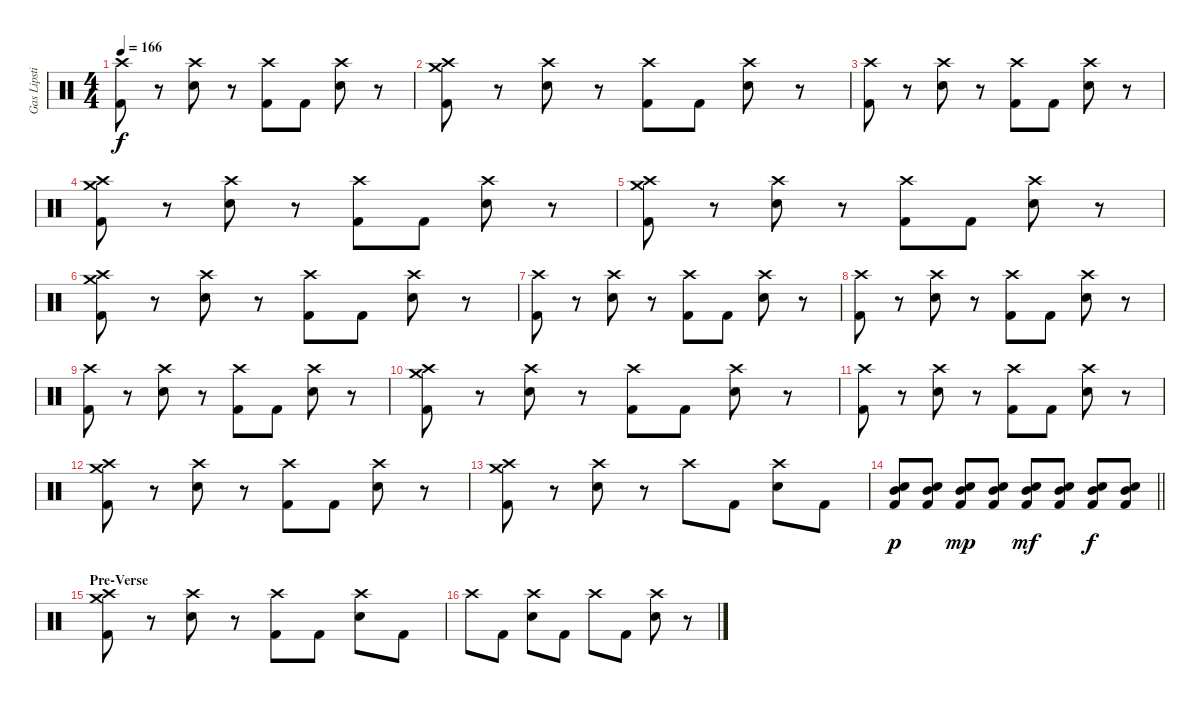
\track ("Gas Lipstick (Drums)" "Gas Lipsti") {instrument percussion}
\staff {score}
\articulation defaults
\ts (4 4)
\tempo 166
\clef neutral
\ks c
("Crash high (hit)" "Kick (hit) 2").8{dy f} r.8 ("Crash high (hit)" "Snare (hit) 2").8 r.8 ("Crash high (hit)" "Kick (hit) 2").8 "Kick (hit) 2".8 ("Crash high (hit)" "Snare (hit) 2").8 r.8 |
("Crash medium (hit)" "Crash high (hit)" "Kick (hit) 2").8 r.8 ("Crash high (hit)" "Snare (hit) 2").8 r.8 ("Crash high (hit)" "Kick (hit) 2").8 "Kick (hit) 2".8 ("Crash high (hit)" "Snare (hit) 2").8 r.8 |
("Crash high (hit)" "Kick (hit) 2").8 r.8 ("Crash high (hit)" "Snare (hit) 2").8 r.8 ("Crash high (hit)" "Kick (hit) 2").8 "Kick (hit) 2".8 ("Crash high (hit)" "Snare (hit) 2").8 r.8 |
("Crash medium (hit)" "Crash high (hit)" "Kick (hit) 2").8 r.8 ("Crash high (hit)" "Snare (hit) 2").8 r.8 ("Crash high (hit)" "Kick (hit) 2").8 "Kick (hit) 2".8 ("Crash high (hit)" "Snare (hit) 2").8 r.8 |
("Crash medium (hit)" "Crash high (hit)" "Kick (hit) 2").8 r.8 ("Crash high (hit)" "Snare (hit) 2").8 r.8 ("Crash high (hit)" "Kick (hit) 2").8 "Kick (hit) 2".8 ("Crash high (hit)" "Snare (hit) 2").8 r.8 |
("Crash medium (hit)" "Crash high (hit)" "Kick (hit) 2").8 r.8 ("Crash high (hit)" "Snare (hit) 2").8 r.8 ("Crash high (hit)" "Kick (hit) 2").8 "Kick (hit) 2".8 ("Crash high (hit)" "Snare (hit) 2").8 r.8 |
("Crash high (hit)" "Kick (hit) 2").8 r.8 ("Crash high (hit)" "Snare (hit) 2").8 r.8 ("Crash high (hit)" "Kick (hit) 2").8 "Kick (hit) 2".8 ("Crash high (hit)" "Snare (hit) 2").8 r.8 |
("Crash high (hit)" "Kick (hit) 2").8 r.8 ("Crash high (hit)" "Snare (hit) 2").8 r.8 ("Crash high (hit)" "Kick (hit) 2").8 "Kick (hit) 2".8 ("Crash high (hit)" "Snare (hit) 2").8 r.8 |
("Crash high (hit)" "Kick (hit) 2").8 r.8 ("Crash high (hit)" "Snare (hit) 2").8 r.8 ("Crash high (hit)" "Kick (hit) 2").8 "Kick (hit) 2".8 ("Crash high (hit)" "Snare (hit) 2").8 r.8 |
("Crash medium (hit)" "Crash high (hit)" "Kick (hit) 2").8 r.8 ("Crash high (hit)" "Snare (hit) 2").8 r.8 ("Crash high (hit)" "Kick (hit) 2").8 "Kick (hit) 2".8 ("Crash high (hit)" "Snare (hit) 2").8 r.8 |
("Crash high (hit)" "Kick (hit) 2").8 r.8 ("Crash high (hit)" "Snare (hit) 2").8 r.8 ("Crash high (hit)" "Kick (hit) 2").8 "Kick (hit) 2".8 ("Crash high (hit)" "Snare (hit) 2").8 r.8 |
("Crash medium (hit)" "Crash high (hit)" "Kick (hit) 2").8 r.8 ("Crash high (hit)" "Snare (hit) 2").8 r.8 ("Crash high (hit)" "Kick (hit) 2").8 "Kick (hit) 2".8 ("Crash high (hit)" "Snare (hit) 2").8 r.8 |
("Crash medium (hit)" "Crash high (hit)" "Kick (hit) 2").8 r.8 ("Crash high (hit)" "Snare (hit) 2").8 r.8 "Crash high (hit)".8 "Kick (hit) 2".8 ("Crash high (hit)" "Snare (hit) 2").8 "Kick (hit) 2".8 |
\barLineRight lightlight
("Mid Tom (hit)" "Snare (hit) 2" "Kick (hit) 2").8{dy p} ("Mid Tom (hit)" "Snare (hit) 2" "Kick (hit) 2").8 ("Mid Tom (hit)" "Snare (hit) 2" "Kick (hit) 2").8{dy mp} ("Mid Tom (hit)" "Snare (hit) 2" "Kick (hit) 2").8 ("Mid Tom (hit)" "Snare (hit) 2" "Kick (hit) 2").8{dy mf} ("Mid Tom (hit)" "Snare (hit) 2" "Kick (hit) 2").8 ("Mid Tom (hit)" "Snare (hit) 2" "Kick (hit) 2").8{dy f} ("Mid Tom (hit)" "Snare (hit) 2" "Kick (hit) 2").8 |
\section ("" "Pre-Verse")
("Crash medium (hit)" "Crash high (hit)" "Kick (hit) 2").8 r.8 ("Crash high (hit)" "Snare (hit) 2").8 r.8 ("Crash high (hit)" "Kick (hit) 2").8 "Kick (hit) 2".8 ("Crash high (hit)" "Snare (hit) 2").8 "Kick (hit) 2".8 |
"Crash high (hit)".8 "Kick (hit) 2".8 ("Crash high (hit)" "Snare (hit) 2").8 "Kick (hit) 2".8 "Crash high (hit)".8 "Kick (hit) 2".8 ("Crash high (hit)" "Snare (hit) 2").8 r.8
